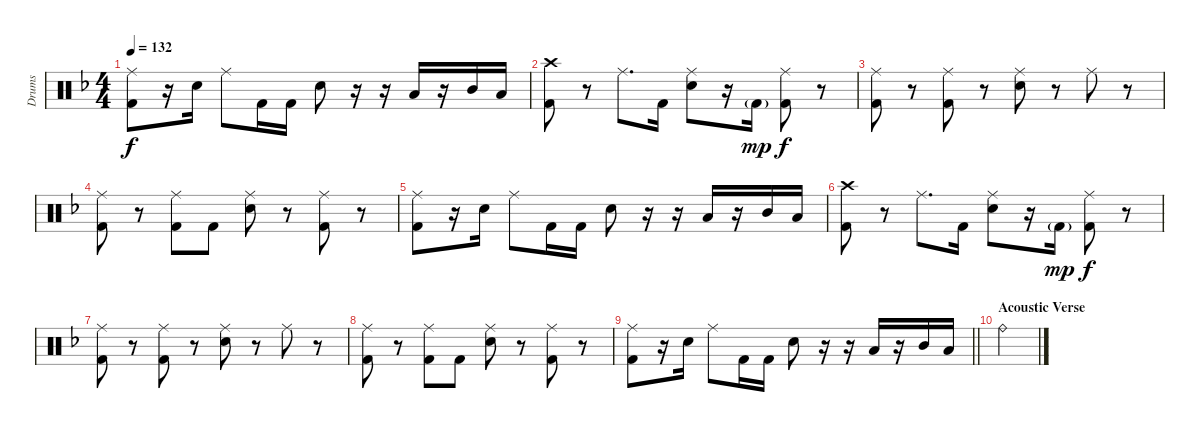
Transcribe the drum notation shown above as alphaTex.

\track ("Drums" "Drums") {instrument percussion}
\staff {score}
\articulation defaults
\ts (4 4)
\tempo 132
\clef neutral
\ks dminor
("Ride (middle)" "Kick (hit) 2").8{dy f} r.16 "Snare (hit) 2".16 "Ride (middle)".8 "Kick (hit) 2".16 "Kick (hit) 2".16 "Snare (hit) 2".8 r.16 r.16 "Low Tom (hit)".16 r.16 "Mid Tom (hit)".16 "Low Tom (hit)".16 |
("Crash high (hit)" "Kick (hit) 2").8 r.8 "Ride (middle)".8{d} "Kick (hit) 2".16 ("Ride (middle)" "Snare (hit) 2").8 r.16 "Kick (hit) 2"{g}.16{dy mp} ("Ride (middle)" "Kick (hit) 2").8{dy f} r.8 |
("Ride (middle)" "Kick (hit) 2").8 r.8 ("Ride (middle)" "Kick (hit) 2").8 r.8 ("Ride (middle)" "Snare (hit) 2").8 r.8 "Ride (middle)".8 r.8 |
("Ride (middle)" "Kick (hit) 2").8 r.8 ("Ride (middle)" "Kick (hit) 2").8 "Kick (hit) 2".8 ("Ride (middle)" "Snare (hit) 2").8 r.8 ("Ride (middle)" "Kick (hit) 2").8 r.8 |
("Ride (middle)" "Kick (hit) 2").8 r.16 "Snare (hit) 2".16 "Ride (middle)".8 "Kick (hit) 2".16 "Kick (hit) 2".16 "Snare (hit) 2".8 r.16 r.16 "Low Tom (hit)".16 r.16 "Mid Tom (hit)".16 "Low Tom (hit)".16 |
("Crash high (hit)" "Kick (hit) 2").8 r.8 "Ride (middle)".8{d} "Kick (hit) 2".16 ("Ride (middle)" "Snare (hit) 2").8 r.16 "Kick (hit) 2"{g}.16{dy mp} ("Ride (middle)" "Kick (hit) 2").8{dy f} r.8 |
("Ride (middle)" "Kick (hit) 2").8 r.8 ("Ride (middle)" "Kick (hit) 2").8 r.8 ("Ride (middle)" "Snare (hit) 2").8 r.8 "Ride (middle)".8 r.8 |
("Ride (middle)" "Kick (hit) 2").8 r.8 ("Ride (middle)" "Kick (hit) 2").8 "Kick (hit) 2".8 ("Ride (middle)" "Snare (hit) 2").8 r.8 ("Ride (middle)" "Kick (hit) 2").8 r.8 |
\barLineRight lightlight
("Ride (middle)" "Kick (hit) 2").8 r.16 "Snare (hit) 2".16 "Ride (middle)".8 "Kick (hit) 2".16 "Kick (hit) 2".16 "Snare (hit) 2".8 r.16 r.16 "Low Tom (hit)".16 r.16 "Mid Tom (hit)".16 "Low Tom (hit)".16 |
\section ("" "Acoustic Verse")
"Ride (bell)".4
